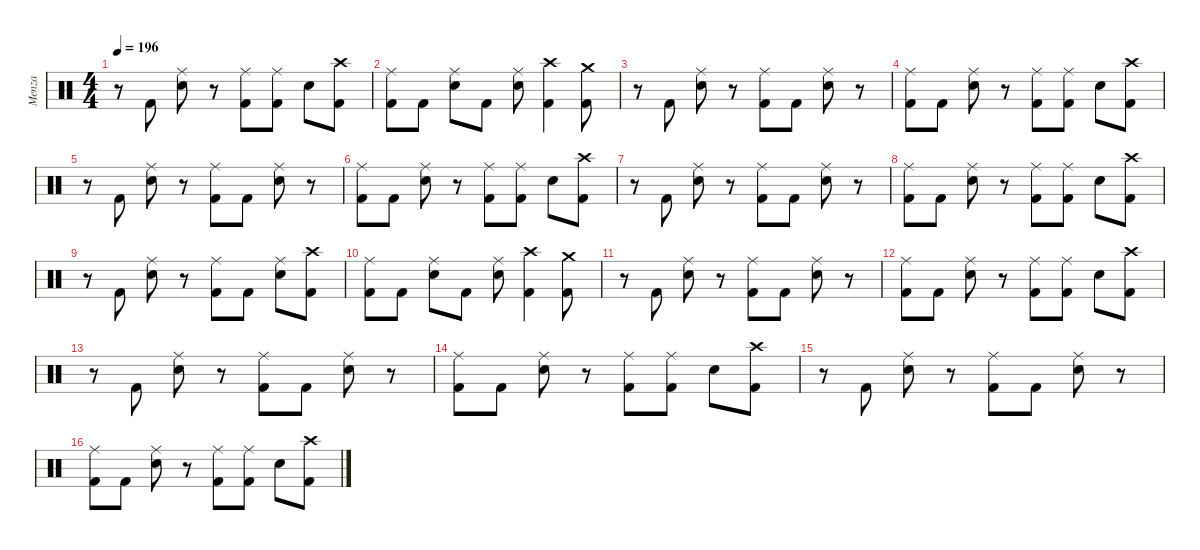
\defaultSystemsLayout 4
\hideDynamics
\bracketExtendMode nobrackets
\firstSystemTrackNameMode fullname
\otherSystemsTrackNameOrientation horizontal
\track ("Menza" "drm.") {instrument percussion}
\staff {score}
\articulation defaults
\ts (4 4)
\tempo 196
\clef neutral
\ks c
r.8{dy fff beam Down} "Kick (hit) 2".8{beam Up} ("Ride (middle)" "Snare (hit) 2").8{dy ff beam Down} r.8{beam Down} ("Ride (middle)" "Kick (hit) 2").8{beam Down} ("Ride (middle)" "Kick (hit) 2").8{dy f beam Down} "Snare (hit) 2".8{dy fff beam Down} ("Crash high (hit)" "Kick (hit) 2").8{dy ff beam Down} |
("Ride (middle)" "Kick (hit) 2").8{beam Down} "Kick (hit) 2".8{dy fff beam Down} ("Ride (middle)" "Snare (hit) 2").8{dy ff beam Down} "Kick (hit) 2".8{dy fff beam Down} ("Ride (middle)" "Snare (hit) 2").8{dy ff beam Down} ("Crash high (hit)" "Kick (hit) 2").4{beam Down} ("Crash medium (hit)" "Kick (hit) 2").8{dy fff beam Down} |
r.8{beam Down} "Kick (hit) 2".8{beam Up} ("Ride (middle)" "Snare (hit) 2").8{dy ff beam Down} r.8{beam Down} ("Ride (middle)" "Kick (hit) 2").8{beam Down} "Kick (hit) 2".8{dy fff beam Down} ("Ride (middle)" "Snare (hit) 2").8{dy ff beam Down} r.8{beam Down} |
("Ride (middle)" "Kick (hit) 2").8{beam Down} "Kick (hit) 2".8{dy fff beam Down} ("Ride (middle)" "Snare (hit) 2").8{dy ff beam Down} r.8{beam Down} ("Ride (middle)" "Kick (hit) 2").8{beam Down} ("Ride (middle)" "Kick (hit) 2").8{dy f beam Down} "Snare (hit) 2".8{dy fff beam Down} ("Crash high (hit)" "Kick (hit) 2").8{beam Down} |
r.8{beam Down} "Kick (hit) 2".8{beam Up} ("Ride (middle)" "Snare (hit) 2").8{dy ff beam Down} r.8{beam Down} ("Ride (middle)" "Kick (hit) 2").8{beam Down} "Kick (hit) 2".8{dy fff beam Down} ("Ride (middle)" "Snare (hit) 2").8{dy ff beam Down} r.8{beam Down} |
("Ride (middle)" "Kick (hit) 2").8{beam Down} "Kick (hit) 2".8{dy fff beam Down} ("Ride (middle)" "Snare (hit) 2").8{dy ff beam Down} r.8{beam Down} ("Ride (middle)" "Kick (hit) 2").8{beam Down} ("Ride (middle)" "Kick (hit) 2").8{dy f beam Down} "Snare (hit) 2".8{dy fff beam Down} ("Crash high (hit)" "Kick (hit) 2").8{beam Down} |
r.8{beam Down} "Kick (hit) 2".8{beam Up} ("Ride (middle)" "Snare (hit) 2").8{dy ff beam Down} r.8{beam Down} ("Ride (middle)" "Kick (hit) 2").8{beam Down} "Kick (hit) 2".8{dy fff beam Down} ("Ride (middle)" "Snare (hit) 2").8{dy ff beam Down} r.8{beam Down} |
("Ride (middle)" "Kick (hit) 2").8{beam Down} "Kick (hit) 2".8{dy fff beam Down} ("Ride (middle)" "Snare (hit) 2").8{dy ff beam Down} r.8{beam Down} ("Ride (middle)" "Kick (hit) 2").8{beam Down} ("Ride (middle)" "Kick (hit) 2").8{dy f beam Down} "Snare (hit) 2".8{dy fff beam Down} ("Crash high (hit)" "Kick (hit) 2").8{beam Down} |
r.8{beam Down} "Kick (hit) 2".8{beam Up} ("Ride (middle)" "Snare (hit) 2").8{dy ff beam Down} r.8{beam Down} ("Ride (middle)" "Kick (hit) 2").8{beam Down} "Kick (hit) 2".8{dy fff beam Down} ("Ride (middle)" "Snare (hit) 2").8{dy ff beam Down} ("Crash high (hit)" "Kick (hit) 2").8{beam Down} |
("Ride (middle)" "Kick (hit) 2").8{beam Down} "Kick (hit) 2".8{dy fff beam Down} ("Ride (middle)" "Snare (hit) 2").8{dy ff beam Down} "Kick (hit) 2".8{dy fff beam Down} ("Ride (middle)" "Snare (hit) 2").8{dy ff beam Down} ("Crash high (hit)" "Kick (hit) 2").4{beam Down} ("Crash medium (hit)" "Kick (hit) 2").8{dy fff beam Down} |
r.8{beam Down} "Kick (hit) 2".8{beam Up} ("Ride (middle)" "Snare (hit) 2").8{dy ff beam Down} r.8{beam Down} ("Ride (middle)" "Kick (hit) 2").8{beam Down} "Kick (hit) 2".8{dy fff beam Down} ("Ride (middle)" "Snare (hit) 2").8{dy ff beam Down} r.8{beam Down} |
("Ride (middle)" "Kick (hit) 2").8{beam Down} "Kick (hit) 2".8{dy fff beam Down} ("Ride (middle)" "Snare (hit) 2").8{dy ff beam Down} r.8{beam Down} ("Ride (middle)" "Kick (hit) 2").8{beam Down} ("Ride (middle)" "Kick (hit) 2").8{dy f beam Down} "Snare (hit) 2".8{dy fff beam Down} ("Crash high (hit)" "Kick (hit) 2").8{beam Down} |
r.8{beam Down} "Kick (hit) 2".8{beam Up} ("Ride (middle)" "Snare (hit) 2").8{dy ff beam Down} r.8{beam Down} ("Ride (middle)" "Kick (hit) 2").8{beam Down} "Kick (hit) 2".8{dy fff beam Down} ("Ride (middle)" "Snare (hit) 2").8{dy ff beam Down} r.8{beam Down} |
("Ride (middle)" "Kick (hit) 2").8{beam Down} "Kick (hit) 2".8{dy fff beam Down} ("Ride (middle)" "Snare (hit) 2").8{dy ff beam Down} r.8{beam Down} ("Ride (middle)" "Kick (hit) 2").8{beam Down} ("Ride (middle)" "Kick (hit) 2").8{dy f beam Down} "Snare (hit) 2".8{dy fff beam Down} ("Crash high (hit)" "Kick (hit) 2").8{beam Down} |
r.8{beam Down} "Kick (hit) 2".8{beam Up} ("Ride (middle)" "Snare (hit) 2").8{dy ff beam Down} r.8{beam Down} ("Ride (middle)" "Kick (hit) 2").8{beam Down} "Kick (hit) 2".8{dy fff beam Down} ("Ride (middle)" "Snare (hit) 2").8{dy ff beam Down} r.8{beam Down} |
("Ride (middle)" "Kick (hit) 2").8{beam Down} "Kick (hit) 2".8{dy fff beam Down} ("Ride (middle)" "Snare (hit) 2").8{dy ff beam Down} r.8{beam Down} ("Ride (middle)" "Kick (hit) 2").8{beam Down} ("Ride (middle)" "Kick (hit) 2").8{dy f beam Down} "Snare (hit) 2".8{dy fff beam Down} ("Crash high (hit)" "Kick (hit) 2").8{beam Down}
